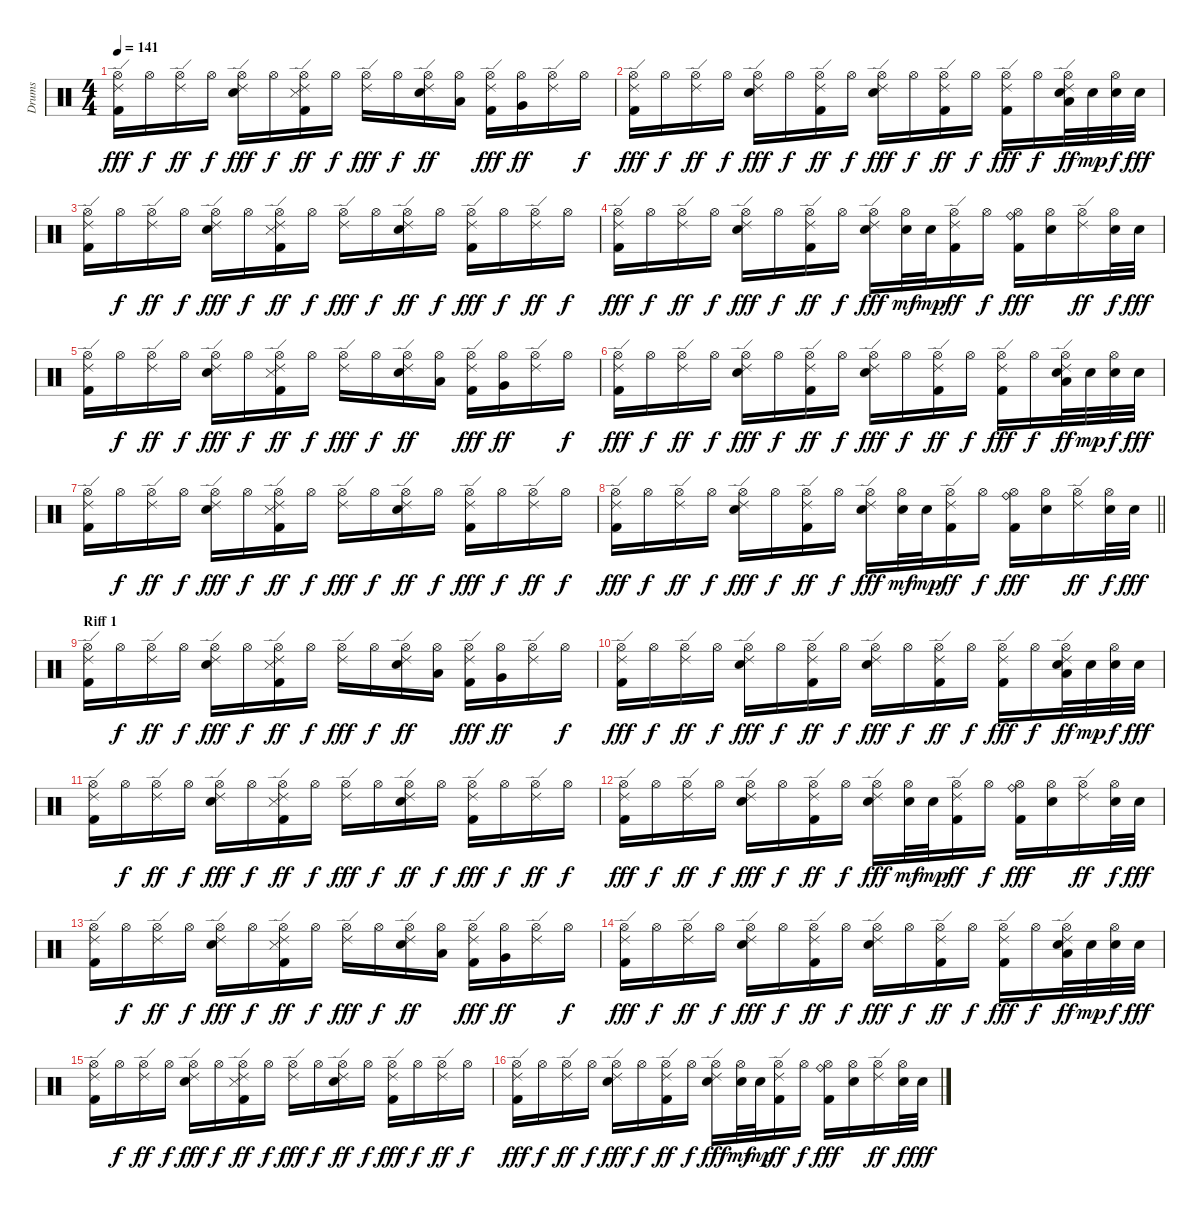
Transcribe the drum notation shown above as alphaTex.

\track ("Drums" "Drums") {instrument percussion}
\staff {score}
\articulation defaults
\ts (4 4)
\tempo 141
\clef neutral
\ks c
("Kick (hit) 2" "Hi-Hat (open)" "Ride (edge) 2").16{dy fff} "Hi-Hat (open)".16{dy f} ("Hi-Hat (open)" "Ride (edge) 2").16{dy ff} "Hi-Hat (open)".16{dy f} ("Snare (hit) 2" "Hi-Hat (open)" "Ride (edge) 2").16{dy fff} "Hi-Hat (open)".16{dy f} ("Kick (hit) 2" "Snare (side stick) 3" "Hi-Hat (open)" "Ride (edge) 2").16{dy ff} "Hi-Hat (open)".16{dy f} ("Hi-Hat (open)" "Ride (edge) 2").16{dy fff} "Hi-Hat (open)".16{dy f} ("Snare (hit) 2" "Hi-Hat (open)" "Ride (edge) 2").16{dy ff} ("Hi-Hat (open)" "Low Floor Tom (hit)").16 ("Kick (hit) 2" "Hi-Hat (open)" "Ride (edge) 2").16{dy fff} ("Hi-Hat (open)" "Very Low Tom (hit)").16{dy ff} ("Hi-Hat (open)" "Ride (edge) 2").16 "Hi-Hat (open)".16{dy f} |
("Kick (hit) 2" "Hi-Hat (open)" "Ride (edge) 2").16{dy fff} "Hi-Hat (open)".16{dy f} ("Hi-Hat (open)" "Ride (edge) 2").16{dy ff} "Hi-Hat (open)".16{dy f} ("Snare (hit) 2" "Hi-Hat (open)" "Ride (edge) 2").16{dy fff} "Hi-Hat (open)".16{dy f} ("Kick (hit) 2" "Hi-Hat (open)" "Ride (edge) 2").16{dy ff} "Hi-Hat (open)".16{dy f} ("Snare (hit) 2" "Hi-Hat (open)" "Ride (edge) 2").16{dy fff} "Hi-Hat (open)".16{dy f} ("Kick (hit) 2" "Hi-Hat (open)" "Ride (edge) 2").16{dy ff} "Hi-Hat (open)".16{dy f} ("Kick (hit) 2" "Hi-Hat (open)" "Ride (edge) 2").16{dy fff} "Hi-Hat (open)".16{dy f} ("Snare (hit) 2" "Hi-Hat (open)" "Ride (edge) 2" "Low Tom (hit)").32{dy ff} "Snare (hit) 2".32{dy mp} ("Snare (hit) 2" "Hi-Hat (open)").32{dy f} "Snare (hit) 2".32{dy fff} |
("Kick (hit) 2" "Hi-Hat (open)" "Ride (edge) 2").16 "Hi-Hat (open)".16{dy f} ("Hi-Hat (open)" "Ride (edge) 2").16{dy ff} "Hi-Hat (open)".16{dy f} ("Snare (hit) 2" "Hi-Hat (open)" "Ride (edge) 2").16{dy fff} "Hi-Hat (open)".16{dy f} ("Kick (hit) 2" "Snare (side stick) 3" "Hi-Hat (open)" "Ride (edge) 2").16{dy ff} "Hi-Hat (open)".16{dy f} ("Hi-Hat (open)" "Ride (edge) 2").16{dy fff} "Hi-Hat (open)".16{dy f} ("Snare (hit) 2" "Hi-Hat (open)" "Ride (edge) 2").16{dy ff} "Hi-Hat (open)".16{dy f} ("Kick (hit) 2" "Hi-Hat (open)" "Ride (edge) 2").16{dy fff} "Hi-Hat (open)".16{dy f} ("Hi-Hat (open)" "Ride (edge) 2").16{dy ff} "Hi-Hat (open)".16{dy f} |
("Kick (hit) 2" "Hi-Hat (open)" "Ride (edge) 2").16{dy fff} "Hi-Hat (open)".16{dy f} ("Hi-Hat (open)" "Ride (edge) 2").16{dy ff} "Hi-Hat (open)".16{dy f} ("Snare (hit) 2" "Hi-Hat (open)" "Ride (edge) 2").16{dy fff} "Hi-Hat (open)".16{dy f} ("Kick (hit) 2" "Hi-Hat (open)" "Ride (edge) 2").16{dy ff} "Hi-Hat (open)".16{dy f} ("Snare (hit) 2" "Hi-Hat (open)" "Ride (edge) 2").16{dy fff} ("Snare (hit) 2" "Hi-Hat (open)").32{dy mf} "Snare (hit) 2".32{dy mp} ("Kick (hit) 2" "Hi-Hat (open)" "Ride (edge) 2").16{dy ff} "Hi-Hat (open)".16{dy f} ("Kick (hit) 2" "Hi-Hat (open)" "Ride (bell)").16{dy fff} ("Snare (hit) 2" "Hi-Hat (open)").16 ("Hi-Hat (open)" "Ride (edge) 2").16{dy ff} ("Snare (hit) 2" "Hi-Hat (open)").32{dy f} "Snare (hit) 2".32{dy fff} |
("Kick (hit) 2" "Hi-Hat (open)" "Ride (edge) 2").16 "Hi-Hat (open)".16{dy f} ("Hi-Hat (open)" "Ride (edge) 2").16{dy ff} "Hi-Hat (open)".16{dy f} ("Snare (hit) 2" "Hi-Hat (open)" "Ride (edge) 2").16{dy fff} "Hi-Hat (open)".16{dy f} ("Kick (hit) 2" "Snare (side stick) 3" "Hi-Hat (open)" "Ride (edge) 2").16{dy ff} "Hi-Hat (open)".16{dy f} ("Hi-Hat (open)" "Ride (edge) 2").16{dy fff} "Hi-Hat (open)".16{dy f} ("Snare (hit) 2" "Hi-Hat (open)" "Ride (edge) 2").16{dy ff} ("Hi-Hat (open)" "Low Floor Tom (hit)").16 ("Kick (hit) 2" "Hi-Hat (open)" "Ride (edge) 2").16{dy fff} ("Hi-Hat (open)" "Very Low Tom (hit)").16{dy ff} ("Hi-Hat (open)" "Ride (edge) 2").16 "Hi-Hat (open)".16{dy f} |
("Kick (hit) 2" "Hi-Hat (open)" "Ride (edge) 2").16{dy fff} "Hi-Hat (open)".16{dy f} ("Hi-Hat (open)" "Ride (edge) 2").16{dy ff} "Hi-Hat (open)".16{dy f} ("Snare (hit) 2" "Hi-Hat (open)" "Ride (edge) 2").16{dy fff} "Hi-Hat (open)".16{dy f} ("Kick (hit) 2" "Hi-Hat (open)" "Ride (edge) 2").16{dy ff} "Hi-Hat (open)".16{dy f} ("Snare (hit) 2" "Hi-Hat (open)" "Ride (edge) 2").16{dy fff} "Hi-Hat (open)".16{dy f} ("Kick (hit) 2" "Hi-Hat (open)" "Ride (edge) 2").16{dy ff} "Hi-Hat (open)".16{dy f} ("Kick (hit) 2" "Hi-Hat (open)" "Ride (edge) 2").16{dy fff} "Hi-Hat (open)".16{dy f} ("Snare (hit) 2" "Hi-Hat (open)" "Ride (edge) 2" "Low Tom (hit)").32{dy ff} "Snare (hit) 2".32{dy mp} ("Snare (hit) 2" "Hi-Hat (open)").32{dy f} "Snare (hit) 2".32{dy fff} |
("Kick (hit) 2" "Hi-Hat (open)" "Ride (edge) 2").16 "Hi-Hat (open)".16{dy f} ("Hi-Hat (open)" "Ride (edge) 2").16{dy ff} "Hi-Hat (open)".16{dy f} ("Snare (hit) 2" "Hi-Hat (open)" "Ride (edge) 2").16{dy fff} "Hi-Hat (open)".16{dy f} ("Kick (hit) 2" "Snare (side stick) 3" "Hi-Hat (open)" "Ride (edge) 2").16{dy ff} "Hi-Hat (open)".16{dy f} ("Hi-Hat (open)" "Ride (edge) 2").16{dy fff} "Hi-Hat (open)".16{dy f} ("Snare (hit) 2" "Hi-Hat (open)" "Ride (edge) 2").16{dy ff} "Hi-Hat (open)".16{dy f} ("Kick (hit) 2" "Hi-Hat (open)" "Ride (edge) 2").16{dy fff} "Hi-Hat (open)".16{dy f} ("Hi-Hat (open)" "Ride (edge) 2").16{dy ff} "Hi-Hat (open)".16{dy f} |
\barLineRight lightlight
("Kick (hit) 2" "Hi-Hat (open)" "Ride (edge) 2").16{dy fff} "Hi-Hat (open)".16{dy f} ("Hi-Hat (open)" "Ride (edge) 2").16{dy ff} "Hi-Hat (open)".16{dy f} ("Snare (hit) 2" "Hi-Hat (open)" "Ride (edge) 2").16{dy fff} "Hi-Hat (open)".16{dy f} ("Kick (hit) 2" "Hi-Hat (open)" "Ride (edge) 2").16{dy ff} "Hi-Hat (open)".16{dy f} ("Snare (hit) 2" "Hi-Hat (open)" "Ride (edge) 2").16{dy fff} ("Snare (hit) 2" "Hi-Hat (open)").32{dy mf} "Snare (hit) 2".32{dy mp} ("Kick (hit) 2" "Hi-Hat (open)" "Ride (edge) 2").16{dy ff} "Hi-Hat (open)".16{dy f} ("Kick (hit) 2" "Hi-Hat (open)" "Ride (bell)").16{dy fff} ("Snare (hit) 2" "Hi-Hat (open)").16 ("Hi-Hat (open)" "Ride (edge) 2").16{dy ff} ("Snare (hit) 2" "Hi-Hat (open)").32{dy f} "Snare (hit) 2".32{dy fff} |
\section ("" "Riff 1")
("Kick (hit) 2" "Hi-Hat (open)" "Ride (edge) 2").16 "Hi-Hat (open)".16{dy f} ("Hi-Hat (open)" "Ride (edge) 2").16{dy ff} "Hi-Hat (open)".16{dy f} ("Snare (hit) 2" "Hi-Hat (open)" "Ride (edge) 2").16{dy fff} "Hi-Hat (open)".16{dy f} ("Kick (hit) 2" "Snare (side stick) 3" "Hi-Hat (open)" "Ride (edge) 2").16{dy ff} "Hi-Hat (open)".16{dy f} ("Hi-Hat (open)" "Ride (edge) 2").16{dy fff} "Hi-Hat (open)".16{dy f} ("Snare (hit) 2" "Hi-Hat (open)" "Ride (edge) 2").16{dy ff} ("Hi-Hat (open)" "Low Floor Tom (hit)").16 ("Kick (hit) 2" "Hi-Hat (open)" "Ride (edge) 2").16{dy fff} ("Hi-Hat (open)" "Very Low Tom (hit)").16{dy ff} ("Hi-Hat (open)" "Ride (edge) 2").16 "Hi-Hat (open)".16{dy f} |
("Kick (hit) 2" "Hi-Hat (open)" "Ride (edge) 2").16{dy fff} "Hi-Hat (open)".16{dy f} ("Hi-Hat (open)" "Ride (edge) 2").16{dy ff} "Hi-Hat (open)".16{dy f} ("Snare (hit) 2" "Hi-Hat (open)" "Ride (edge) 2").16{dy fff} "Hi-Hat (open)".16{dy f} ("Kick (hit) 2" "Hi-Hat (open)" "Ride (edge) 2").16{dy ff} "Hi-Hat (open)".16{dy f} ("Snare (hit) 2" "Hi-Hat (open)" "Ride (edge) 2").16{dy fff} "Hi-Hat (open)".16{dy f} ("Kick (hit) 2" "Hi-Hat (open)" "Ride (edge) 2").16{dy ff} "Hi-Hat (open)".16{dy f} ("Kick (hit) 2" "Hi-Hat (open)" "Ride (edge) 2").16{dy fff} "Hi-Hat (open)".16{dy f} ("Snare (hit) 2" "Hi-Hat (open)" "Ride (edge) 2" "Low Tom (hit)").32{dy ff} "Snare (hit) 2".32{dy mp} ("Snare (hit) 2" "Hi-Hat (open)").32{dy f} "Snare (hit) 2".32{dy fff} |
("Kick (hit) 2" "Hi-Hat (open)" "Ride (edge) 2").16 "Hi-Hat (open)".16{dy f} ("Hi-Hat (open)" "Ride (edge) 2").16{dy ff} "Hi-Hat (open)".16{dy f} ("Snare (hit) 2" "Hi-Hat (open)" "Ride (edge) 2").16{dy fff} "Hi-Hat (open)".16{dy f} ("Kick (hit) 2" "Snare (side stick) 3" "Hi-Hat (open)" "Ride (edge) 2").16{dy ff} "Hi-Hat (open)".16{dy f} ("Hi-Hat (open)" "Ride (edge) 2").16{dy fff} "Hi-Hat (open)".16{dy f} ("Snare (hit) 2" "Hi-Hat (open)" "Ride (edge) 2").16{dy ff} "Hi-Hat (open)".16{dy f} ("Kick (hit) 2" "Hi-Hat (open)" "Ride (edge) 2").16{dy fff} "Hi-Hat (open)".16{dy f} ("Hi-Hat (open)" "Ride (edge) 2").16{dy ff} "Hi-Hat (open)".16{dy f} |
("Kick (hit) 2" "Hi-Hat (open)" "Ride (edge) 2").16{dy fff} "Hi-Hat (open)".16{dy f} ("Hi-Hat (open)" "Ride (edge) 2").16{dy ff} "Hi-Hat (open)".16{dy f} ("Snare (hit) 2" "Hi-Hat (open)" "Ride (edge) 2").16{dy fff} "Hi-Hat (open)".16{dy f} ("Kick (hit) 2" "Hi-Hat (open)" "Ride (edge) 2").16{dy ff} "Hi-Hat (open)".16{dy f} ("Snare (hit) 2" "Hi-Hat (open)" "Ride (edge) 2").16{dy fff} ("Snare (hit) 2" "Hi-Hat (open)").32{dy mf} "Snare (hit) 2".32{dy mp} ("Kick (hit) 2" "Hi-Hat (open)" "Ride (edge) 2").16{dy ff} "Hi-Hat (open)".16{dy f} ("Kick (hit) 2" "Hi-Hat (open)" "Ride (bell)").16{dy fff} ("Snare (hit) 2" "Hi-Hat (open)").16 ("Hi-Hat (open)" "Ride (edge) 2").16{dy ff} ("Snare (hit) 2" "Hi-Hat (open)").32{dy f} "Snare (hit) 2".32{dy fff} |
("Kick (hit) 2" "Hi-Hat (open)" "Ride (edge) 2").16 "Hi-Hat (open)".16{dy f} ("Hi-Hat (open)" "Ride (edge) 2").16{dy ff} "Hi-Hat (open)".16{dy f} ("Snare (hit) 2" "Hi-Hat (open)" "Ride (edge) 2").16{dy fff} "Hi-Hat (open)".16{dy f} ("Kick (hit) 2" "Snare (side stick) 3" "Hi-Hat (open)" "Ride (edge) 2").16{dy ff} "Hi-Hat (open)".16{dy f} ("Hi-Hat (open)" "Ride (edge) 2").16{dy fff} "Hi-Hat (open)".16{dy f} ("Snare (hit) 2" "Hi-Hat (open)" "Ride (edge) 2").16{dy ff} ("Hi-Hat (open)" "Low Floor Tom (hit)").16 ("Kick (hit) 2" "Hi-Hat (open)" "Ride (edge) 2").16{dy fff} ("Hi-Hat (open)" "Very Low Tom (hit)").16{dy ff} ("Hi-Hat (open)" "Ride (edge) 2").16 "Hi-Hat (open)".16{dy f} |
("Kick (hit) 2" "Hi-Hat (open)" "Ride (edge) 2").16{dy fff} "Hi-Hat (open)".16{dy f} ("Hi-Hat (open)" "Ride (edge) 2").16{dy ff} "Hi-Hat (open)".16{dy f} ("Snare (hit) 2" "Hi-Hat (open)" "Ride (edge) 2").16{dy fff} "Hi-Hat (open)".16{dy f} ("Kick (hit) 2" "Hi-Hat (open)" "Ride (edge) 2").16{dy ff} "Hi-Hat (open)".16{dy f} ("Snare (hit) 2" "Hi-Hat (open)" "Ride (edge) 2").16{dy fff} "Hi-Hat (open)".16{dy f} ("Kick (hit) 2" "Hi-Hat (open)" "Ride (edge) 2").16{dy ff} "Hi-Hat (open)".16{dy f} ("Kick (hit) 2" "Hi-Hat (open)" "Ride (edge) 2").16{dy fff} "Hi-Hat (open)".16{dy f} ("Snare (hit) 2" "Hi-Hat (open)" "Ride (edge) 2" "Low Tom (hit)").32{dy ff} "Snare (hit) 2".32{dy mp} ("Snare (hit) 2" "Hi-Hat (open)").32{dy f} "Snare (hit) 2".32{dy fff} |
("Kick (hit) 2" "Hi-Hat (open)" "Ride (edge) 2").16 "Hi-Hat (open)".16{dy f} ("Hi-Hat (open)" "Ride (edge) 2").16{dy ff} "Hi-Hat (open)".16{dy f} ("Snare (hit) 2" "Hi-Hat (open)" "Ride (edge) 2").16{dy fff} "Hi-Hat (open)".16{dy f} ("Kick (hit) 2" "Snare (side stick) 3" "Hi-Hat (open)" "Ride (edge) 2").16{dy ff} "Hi-Hat (open)".16{dy f} ("Hi-Hat (open)" "Ride (edge) 2").16{dy fff} "Hi-Hat (open)".16{dy f} ("Snare (hit) 2" "Hi-Hat (open)" "Ride (edge) 2").16{dy ff} "Hi-Hat (open)".16{dy f} ("Kick (hit) 2" "Hi-Hat (open)" "Ride (edge) 2").16{dy fff} "Hi-Hat (open)".16{dy f} ("Hi-Hat (open)" "Ride (edge) 2").16{dy ff} "Hi-Hat (open)".16{dy f} |
("Kick (hit) 2" "Hi-Hat (open)" "Ride (edge) 2").16{dy fff} "Hi-Hat (open)".16{dy f} ("Hi-Hat (open)" "Ride (edge) 2").16{dy ff} "Hi-Hat (open)".16{dy f} ("Snare (hit) 2" "Hi-Hat (open)" "Ride (edge) 2").16{dy fff} "Hi-Hat (open)".16{dy f} ("Kick (hit) 2" "Hi-Hat (open)" "Ride (edge) 2").16{dy ff} "Hi-Hat (open)".16{dy f} ("Snare (hit) 2" "Hi-Hat (open)" "Ride (edge) 2").16{dy fff} ("Snare (hit) 2" "Hi-Hat (open)").32{dy mf} "Snare (hit) 2".32{dy mp} ("Kick (hit) 2" "Hi-Hat (open)" "Ride (edge) 2").16{dy ff} "Hi-Hat (open)".16{dy f} ("Kick (hit) 2" "Hi-Hat (open)" "Ride (bell)").16{dy fff} ("Snare (hit) 2" "Hi-Hat (open)").16 ("Hi-Hat (open)" "Ride (edge) 2").16{dy ff} ("Snare (hit) 2" "Hi-Hat (open)").32{dy f} "Snare (hit) 2".32{dy fff}
